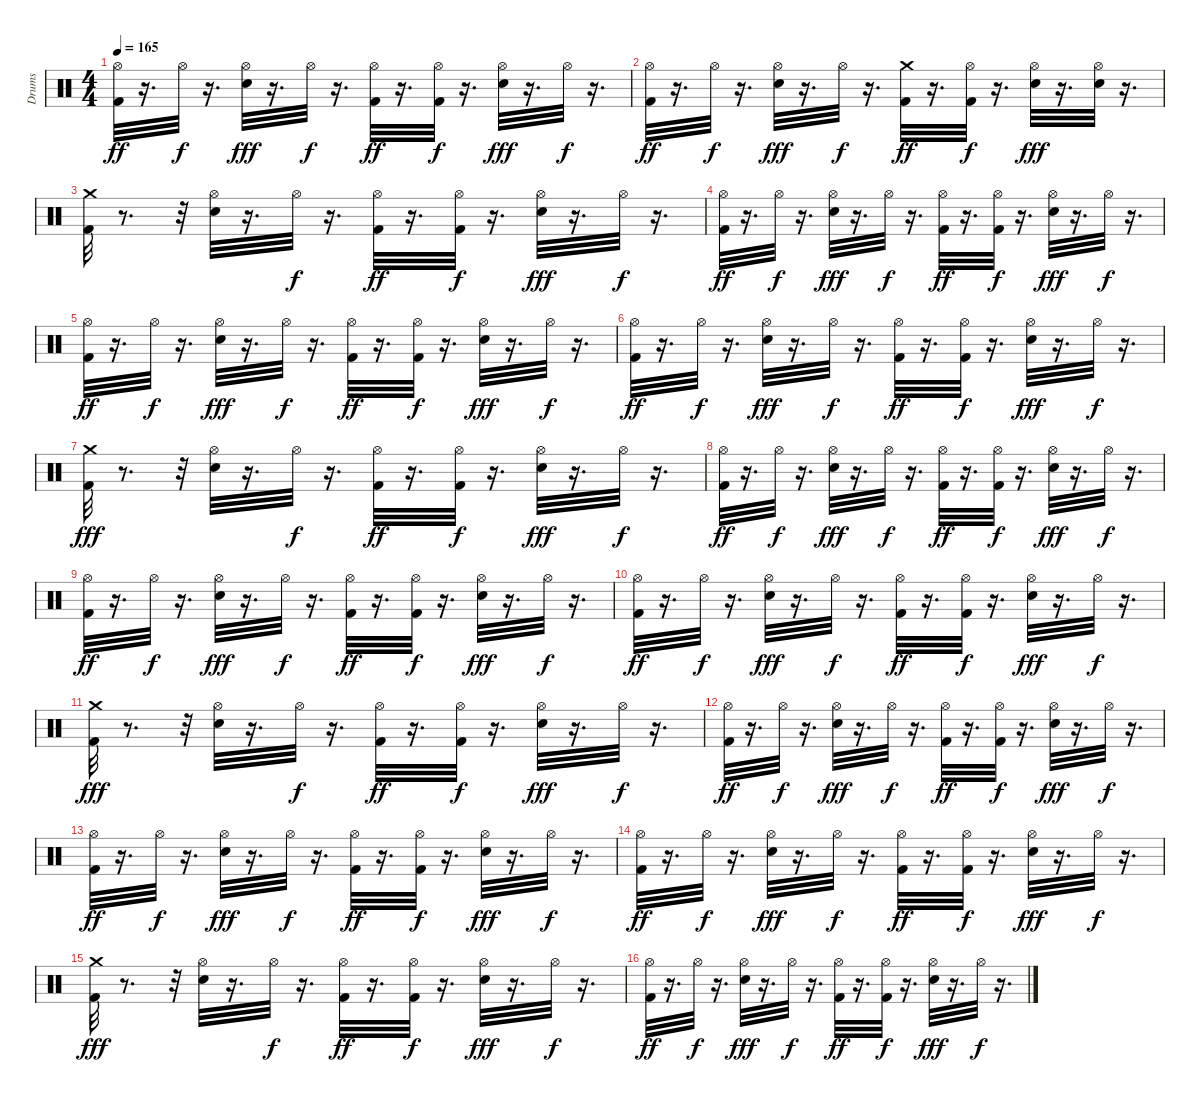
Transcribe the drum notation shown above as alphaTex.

\track ("Drums" "Drums") {instrument percussion}
\staff {score}
\articulation defaults
\ts (4 4)
\tempo 165
\clef neutral
\ks c
("Kick (hit) 2" "Hi-Hat (open)").32{dy ff} r.16{d} "Hi-Hat (open)".32{dy f} r.16{d} ("Snare (hit) 2" "Hi-Hat (open)").32{dy fff} r.16{d} "Hi-Hat (open)".32{dy f} r.16{d} ("Kick (hit) 2" "Hi-Hat (open)").32{dy ff} r.16{d} ("Kick (hit) 2" "Hi-Hat (open)").32{dy f} r.16{d} ("Snare (hit) 2" "Hi-Hat (open)").32{dy fff} r.16{d} "Hi-Hat (open)".32{dy f} r.16{d} |
("Kick (hit) 2" "Hi-Hat (open)").32{dy ff} r.16{d} "Hi-Hat (open)".32{dy f} r.16{d} ("Snare (hit) 2" "Hi-Hat (open)").32{dy fff} r.16{d} "Hi-Hat (open)".32{dy f} r.16{d} ("Crash medium (hit)" "Kick (hit) 2").32{dy ff} r.16{d} ("Kick (hit) 2" "Hi-Hat (open)").32{dy f} r.16{d} ("Snare (hit) 2" "Hi-Hat (open)").32{dy fff} r.16{d} ("Snare (hit) 2" "Hi-Hat (open)").32 r.16{d} |
("Kick (hit) 2" "Crash medium (hit)").32 r.8{d} r.32 ("Snare (hit) 2" "Hi-Hat (open)").32 r.16{d} "Hi-Hat (open)".32{dy f} r.16{d} ("Kick (hit) 2" "Hi-Hat (open)").32{dy ff} r.16{d} ("Kick (hit) 2" "Hi-Hat (open)").32{dy f} r.16{d} ("Snare (hit) 2" "Hi-Hat (open)").32{dy fff} r.16{d} "Hi-Hat (open)".32{dy f} r.16{d} |
("Kick (hit) 2" "Hi-Hat (open)").32{dy ff} r.16{d} "Hi-Hat (open)".32{dy f} r.16{d} ("Snare (hit) 2" "Hi-Hat (open)").32{dy fff} r.16{d} "Hi-Hat (open)".32{dy f} r.16{d} ("Kick (hit) 2" "Hi-Hat (open)").32{dy ff} r.16{d} ("Kick (hit) 2" "Hi-Hat (open)").32{dy f} r.16{d} ("Snare (hit) 2" "Hi-Hat (open)").32{dy fff} r.16{d} "Hi-Hat (open)".32{dy f} r.16{d} |
("Kick (hit) 2" "Hi-Hat (open)").32{dy ff} r.16{d} "Hi-Hat (open)".32{dy f} r.16{d} ("Snare (hit) 2" "Hi-Hat (open)").32{dy fff} r.16{d} "Hi-Hat (open)".32{dy f} r.16{d} ("Kick (hit) 2" "Hi-Hat (open)").32{dy ff} r.16{d} ("Kick (hit) 2" "Hi-Hat (open)").32{dy f} r.16{d} ("Snare (hit) 2" "Hi-Hat (open)").32{dy fff} r.16{d} "Hi-Hat (open)".32{dy f} r.16{d} |
("Kick (hit) 2" "Hi-Hat (open)").32{dy ff} r.16{d} "Hi-Hat (open)".32{dy f} r.16{d} ("Snare (hit) 2" "Hi-Hat (open)").32{dy fff} r.16{d} "Hi-Hat (open)".32{dy f} r.16{d} ("Kick (hit) 2" "Hi-Hat (open)").32{dy ff} r.16{d} ("Kick (hit) 2" "Hi-Hat (open)").32{dy f} r.16{d} ("Snare (hit) 2" "Hi-Hat (open)").32{dy fff} r.16{d} "Hi-Hat (open)".32{dy f} r.16{d} |
("Kick (hit) 2" "Crash medium (hit)").32{dy fff} r.8{d} r.32 ("Snare (hit) 2" "Hi-Hat (open)").32 r.16{d} "Hi-Hat (open)".32{dy f} r.16{d} ("Kick (hit) 2" "Hi-Hat (open)").32{dy ff} r.16{d} ("Kick (hit) 2" "Hi-Hat (open)").32{dy f} r.16{d} ("Snare (hit) 2" "Hi-Hat (open)").32{dy fff} r.16{d} "Hi-Hat (open)".32{dy f} r.16{d} |
("Kick (hit) 2" "Hi-Hat (open)").32{dy ff} r.16{d} "Hi-Hat (open)".32{dy f} r.16{d} ("Snare (hit) 2" "Hi-Hat (open)").32{dy fff} r.16{d} "Hi-Hat (open)".32{dy f} r.16{d} ("Kick (hit) 2" "Hi-Hat (open)").32{dy ff} r.16{d} ("Kick (hit) 2" "Hi-Hat (open)").32{dy f} r.16{d} ("Snare (hit) 2" "Hi-Hat (open)").32{dy fff} r.16{d} "Hi-Hat (open)".32{dy f} r.16{d} |
("Kick (hit) 2" "Hi-Hat (open)").32{dy ff} r.16{d} "Hi-Hat (open)".32{dy f} r.16{d} ("Snare (hit) 2" "Hi-Hat (open)").32{dy fff} r.16{d} "Hi-Hat (open)".32{dy f} r.16{d} ("Kick (hit) 2" "Hi-Hat (open)").32{dy ff} r.16{d} ("Kick (hit) 2" "Hi-Hat (open)").32{dy f} r.16{d} ("Snare (hit) 2" "Hi-Hat (open)").32{dy fff} r.16{d} "Hi-Hat (open)".32{dy f} r.16{d} |
("Kick (hit) 2" "Hi-Hat (open)").32{dy ff} r.16{d} "Hi-Hat (open)".32{dy f} r.16{d} ("Snare (hit) 2" "Hi-Hat (open)").32{dy fff} r.16{d} "Hi-Hat (open)".32{dy f} r.16{d} ("Kick (hit) 2" "Hi-Hat (open)").32{dy ff} r.16{d} ("Kick (hit) 2" "Hi-Hat (open)").32{dy f} r.16{d} ("Snare (hit) 2" "Hi-Hat (open)").32{dy fff} r.16{d} "Hi-Hat (open)".32{dy f} r.16{d} |
("Kick (hit) 2" "Crash medium (hit)").32{dy fff} r.8{d} r.32 ("Snare (hit) 2" "Hi-Hat (open)").32 r.16{d} "Hi-Hat (open)".32{dy f} r.16{d} ("Kick (hit) 2" "Hi-Hat (open)").32{dy ff} r.16{d} ("Kick (hit) 2" "Hi-Hat (open)").32{dy f} r.16{d} ("Snare (hit) 2" "Hi-Hat (open)").32{dy fff} r.16{d} "Hi-Hat (open)".32{dy f} r.16{d} |
("Kick (hit) 2" "Hi-Hat (open)").32{dy ff} r.16{d} "Hi-Hat (open)".32{dy f} r.16{d} ("Snare (hit) 2" "Hi-Hat (open)").32{dy fff} r.16{d} "Hi-Hat (open)".32{dy f} r.16{d} ("Kick (hit) 2" "Hi-Hat (open)").32{dy ff} r.16{d} ("Kick (hit) 2" "Hi-Hat (open)").32{dy f} r.16{d} ("Snare (hit) 2" "Hi-Hat (open)").32{dy fff} r.16{d} "Hi-Hat (open)".32{dy f} r.16{d} |
("Kick (hit) 2" "Hi-Hat (open)").32{dy ff} r.16{d} "Hi-Hat (open)".32{dy f} r.16{d} ("Snare (hit) 2" "Hi-Hat (open)").32{dy fff} r.16{d} "Hi-Hat (open)".32{dy f} r.16{d} ("Kick (hit) 2" "Hi-Hat (open)").32{dy ff} r.16{d} ("Kick (hit) 2" "Hi-Hat (open)").32{dy f} r.16{d} ("Snare (hit) 2" "Hi-Hat (open)").32{dy fff} r.16{d} "Hi-Hat (open)".32{dy f} r.16{d} |
("Kick (hit) 2" "Hi-Hat (open)").32{dy ff} r.16{d} "Hi-Hat (open)".32{dy f} r.16{d} ("Snare (hit) 2" "Hi-Hat (open)").32{dy fff} r.16{d} "Hi-Hat (open)".32{dy f} r.16{d} ("Kick (hit) 2" "Hi-Hat (open)").32{dy ff} r.16{d} ("Kick (hit) 2" "Hi-Hat (open)").32{dy f} r.16{d} ("Snare (hit) 2" "Hi-Hat (open)").32{dy fff} r.16{d} "Hi-Hat (open)".32{dy f} r.16{d} |
("Kick (hit) 2" "Crash medium (hit)").32{dy fff} r.8{d} r.32 ("Snare (hit) 2" "Hi-Hat (open)").32 r.16{d} "Hi-Hat (open)".32{dy f} r.16{d} ("Kick (hit) 2" "Hi-Hat (open)").32{dy ff} r.16{d} ("Kick (hit) 2" "Hi-Hat (open)").32{dy f} r.16{d} ("Snare (hit) 2" "Hi-Hat (open)").32{dy fff} r.16{d} "Hi-Hat (open)".32{dy f} r.16{d} |
("Kick (hit) 2" "Hi-Hat (open)").32{dy ff} r.16{d} "Hi-Hat (open)".32{dy f} r.16{d} ("Snare (hit) 2" "Hi-Hat (open)").32{dy fff} r.16{d} "Hi-Hat (open)".32{dy f} r.16{d} ("Kick (hit) 2" "Hi-Hat (open)").32{dy ff} r.16{d} ("Kick (hit) 2" "Hi-Hat (open)").32{dy f} r.16{d} ("Snare (hit) 2" "Hi-Hat (open)").32{dy fff} r.16{d} "Hi-Hat (open)".32{dy f} r.16{d}
